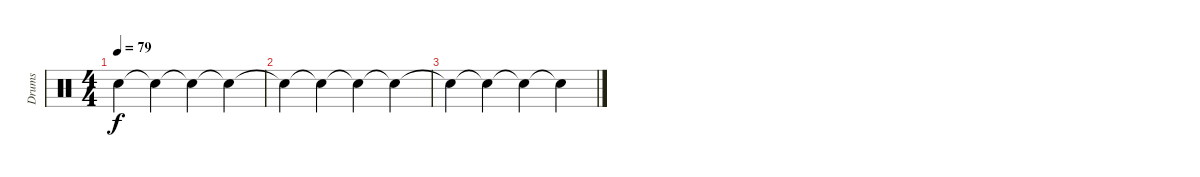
\track ("Drums" "Drums") {instrument percussion}
\staff {score}
\articulation defaults
\ts (4 4)
\tempo 79
\clef neutral
\ks c "Snare (hit)"{t}.4{dy f} "Snare (hit)"{t}.4 "Snare (hit)"{t}.4 "Snare (hit)"{t}.4
|
"Snare (hit)"{t}.4 "Snare (hit)"{t}.4 "Snare (hit)"{t}.4 "Snare (hit)"{t}.4 |
"Snare (hit)"{t}.4 "Snare (hit)"{t}.4 "Snare (hit)"{t}.4 "Snare (hit)"{t}.4
